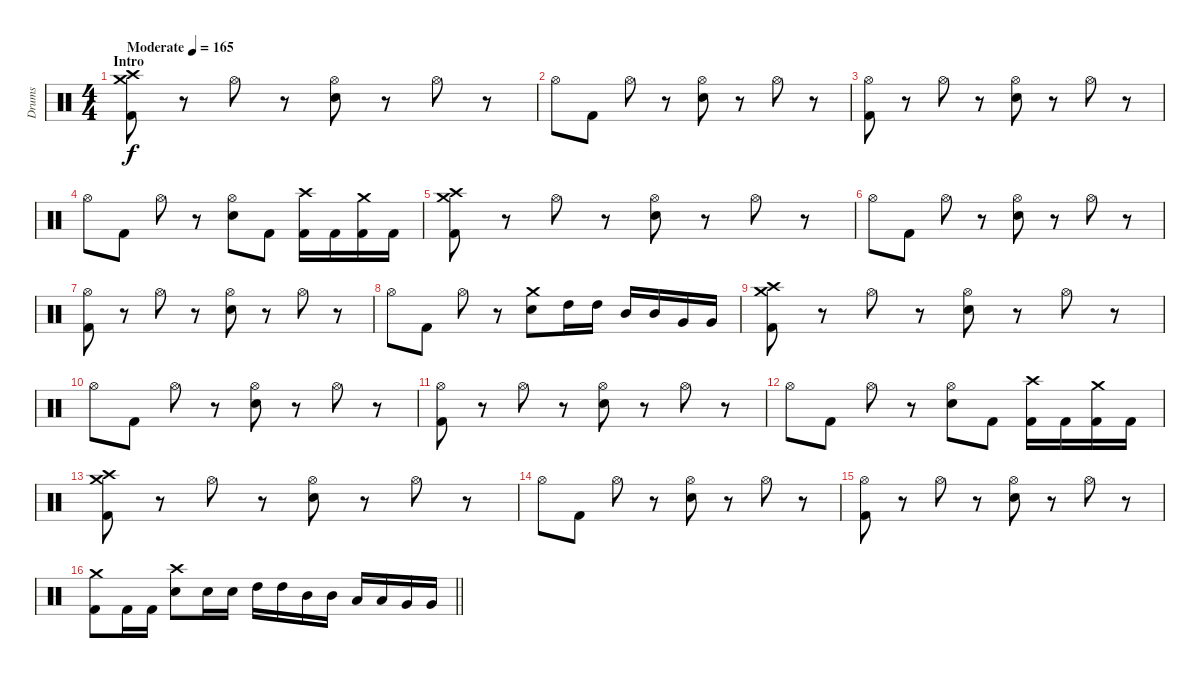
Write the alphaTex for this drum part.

\track ("Drums" "Drums") {instrument percussion}
\staff {score}
\articulation defaults
\ts (4 4)
\section ("" "Intro")
\tempo (165 "Moderate")
\clef neutral
\ks c
("Crash medium (hit)" "Crash high (hit)" "Kick (hit) 2").8{dy f} r.8 "Hi-Hat (open)".8 r.8 ("Hi-Hat (open)" "Electric Snare (hit)").8 r.8 "Hi-Hat (open)".8 r.8 |
"Hi-Hat (open)".8 "Kick (hit) 2".8 "Hi-Hat (open)".8 r.8 ("Hi-Hat (open)" "Electric Snare (hit)").8 r.8 "Hi-Hat (open)".8 r.8 |
("Hi-Hat (open)" "Kick (hit) 2").8 r.8 "Hi-Hat (open)".8 r.8 ("Hi-Hat (open)" "Electric Snare (hit)").8 r.8 "Hi-Hat (open)".8 r.8 |
"Hi-Hat (open)".8 "Kick (hit) 2".8 "Hi-Hat (open)".8 r.8 ("Hi-Hat (open)" "Electric Snare (hit)").8 "Kick (hit) 2".8 ("Crash high (hit)" "Kick (hit) 2").16 "Kick (hit) 2".16 ("Crash medium (hit)" "Kick (hit) 2").16 "Kick (hit) 2".16 |
("Crash medium (hit)" "Crash high (hit)" "Kick (hit) 2").8 r.8 "Hi-Hat (open)".8 r.8 ("Hi-Hat (open)" "Electric Snare (hit)").8 r.8 "Hi-Hat (open)".8 r.8 |
"Hi-Hat (open)".8 "Kick (hit) 2".8 "Hi-Hat (open)".8 r.8 ("Hi-Hat (open)" "Electric Snare (hit)").8 r.8 "Hi-Hat (open)".8 r.8 |
("Hi-Hat (open)" "Kick (hit) 2").8 r.8 "Hi-Hat (open)".8 r.8 ("Hi-Hat (open)" "Electric Snare (hit)").8 r.8 "Hi-Hat (open)".8 r.8 |
"Hi-Hat (open)".8 "Kick (hit) 2".8 "Hi-Hat (open)".8 r.8 ("Crash medium (hit)" "Electric Snare (hit)").8 "High Tom (hit)".16 "High Tom (hit)".16 "Mid Tom (hit)".16 "Mid Tom (hit)".16 "Very Low Tom (hit)".16 "Very Low Tom (hit)".16 |
("Crash medium (hit)" "Crash high (hit)" "Kick (hit) 2").8 r.8 "Hi-Hat (open)".8 r.8 ("Hi-Hat (open)" "Electric Snare (hit)").8 r.8 "Hi-Hat (open)".8 r.8 |
"Hi-Hat (open)".8 "Kick (hit) 2".8 "Hi-Hat (open)".8 r.8 ("Hi-Hat (open)" "Electric Snare (hit)").8 r.8 "Hi-Hat (open)".8 r.8 |
("Hi-Hat (open)" "Kick (hit) 2").8 r.8 "Hi-Hat (open)".8 r.8 ("Hi-Hat (open)" "Electric Snare (hit)").8 r.8 "Hi-Hat (open)".8 r.8 |
"Hi-Hat (open)".8 "Kick (hit) 2".8 "Hi-Hat (open)".8 r.8 ("Hi-Hat (open)" "Electric Snare (hit)").8 "Kick (hit) 2".8 ("Crash high (hit)" "Kick (hit) 2").16 "Kick (hit) 2".16 ("Crash medium (hit)" "Kick (hit) 2").16 "Kick (hit) 2".16 |
("Crash medium (hit)" "Crash high (hit)" "Kick (hit) 2").8 r.8 "Hi-Hat (open)".8 r.8 ("Hi-Hat (open)" "Electric Snare (hit)").8 r.8 "Hi-Hat (open)".8 r.8 |
"Hi-Hat (open)".8 "Kick (hit) 2".8 "Hi-Hat (open)".8 r.8 ("Hi-Hat (open)" "Electric Snare (hit)").8 r.8 "Hi-Hat (open)".8 r.8 |
("Hi-Hat (open)" "Kick (hit) 2").8 r.8 "Hi-Hat (open)".8 r.8 ("Hi-Hat (open)" "Electric Snare (hit)").8 r.8 "Hi-Hat (open)".8 r.8 |
\barLineRight lightlight
("Crash medium (hit)" "Kick (hit) 2").8 "Kick (hit) 2".16 "Kick (hit) 2".16 ("Crash high (hit)" "Electric Snare (hit)").8 "Electric Snare (hit)".16 "Electric Snare (hit)".16 "High Tom (hit)".16 "High Tom (hit)".16 "Mid Tom (hit)".16 "Mid Tom (hit)".16 "Low Tom (hit)".16 "Low Tom (hit)".16 "Very Low Tom (hit)".16 "Very Low Tom (hit)".16
